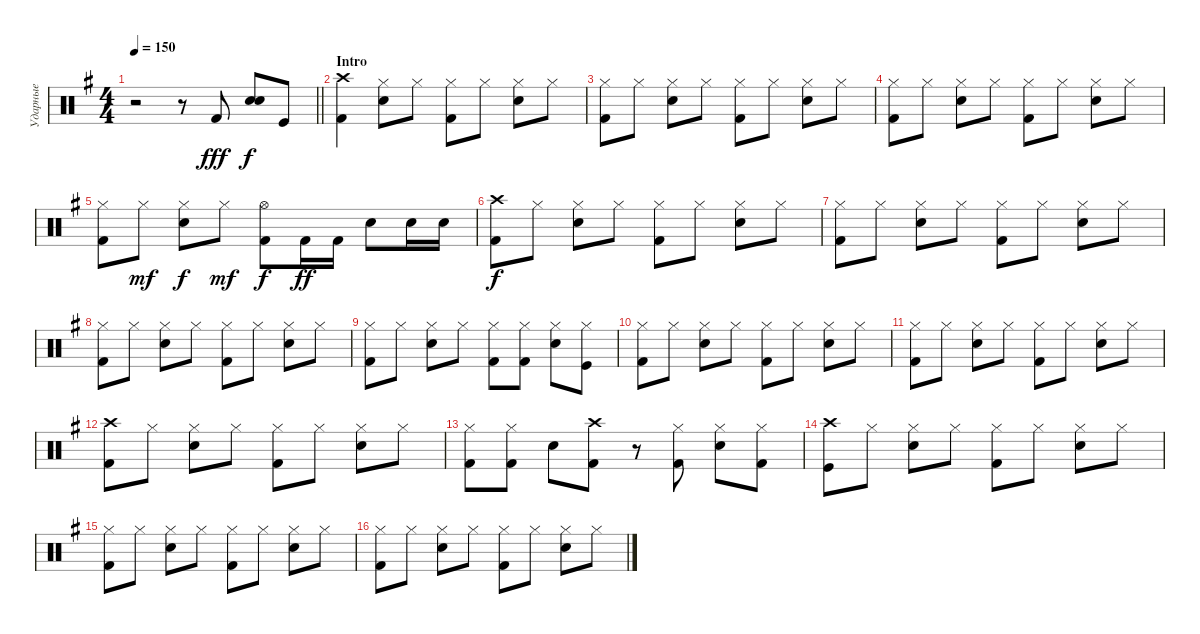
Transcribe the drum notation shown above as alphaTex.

\track ("Ударные" "Ударные") {instrument percussion}
\staff {score}
\articulation defaults
\ts (4 4)
\tempo 150
\clef neutral
\barLineRight lightlight
\ks eminor
r.2{dy fff} r.8 "Kick (hit) 2".8 ("Snare (hit) 2" "Snare (hit) 2").8{bd 240 dy f} "Kick (hit)".8 |
\section ("" "Intro")
("Crash high (hit)" "Kick (hit) 2").4 ("Hi-Hat (closed)" "Snare (hit) 2").8 "Hi-Hat (closed)".8 ("Kick (hit) 2" "Hi-Hat (closed)").8 "Hi-Hat (closed)".8 ("Hi-Hat (closed)" "Snare (hit) 2").8 "Hi-Hat (closed)".8 |
("Hi-Hat (closed)" "Kick (hit) 2").8 "Hi-Hat (closed)".8 ("Hi-Hat (closed)" "Snare (hit) 2").8 "Hi-Hat (closed)".8 ("Hi-Hat (closed)" "Kick (hit) 2").8 "Hi-Hat (closed)".8 ("Hi-Hat (closed)" "Snare (hit) 2").8 "Hi-Hat (closed)".8 |
("Hi-Hat (closed)" "Kick (hit) 2").8 "Hi-Hat (closed)".8 ("Hi-Hat (closed)" "Snare (hit) 2").8 "Hi-Hat (closed)".8 ("Hi-Hat (closed)" "Kick (hit) 2").8 "Hi-Hat (closed)".8 ("Hi-Hat (closed)" "Snare (hit) 2").8 "Hi-Hat (closed)".8 |
("Kick (hit) 2" "Hi-Hat (closed)").8 "Hi-Hat (closed)".8{dy mf} ("Snare (hit) 2" "Hi-Hat (closed)").8{dy f} "Hi-Hat (closed)".8{dy mf} ("Kick (hit) 2" "Hi-Hat (open)").8{dy f} "Kick (hit) 2".16{dy ff} "Kick (hit) 2".16 "Snare (hit) 2".8 "Snare (hit) 2".16 "Snare (hit) 2".16 |
("Crash high (hit)" "Kick (hit) 2").8{dy f} "Hi-Hat (closed)".8 ("Hi-Hat (closed)" "Snare (hit) 2").8 "Hi-Hat (closed)".8 ("Hi-Hat (closed)" "Kick (hit) 2").8 "Hi-Hat (closed)".8 ("Hi-Hat (closed)" "Snare (hit) 2").8 "Hi-Hat (closed)".8 |
("Hi-Hat (closed)" "Kick (hit) 2").8 "Hi-Hat (closed)".8 ("Hi-Hat (closed)" "Snare (hit) 2").8 "Hi-Hat (closed)".8 ("Hi-Hat (closed)" "Kick (hit) 2").8 "Hi-Hat (closed)".8 ("Hi-Hat (closed)" "Snare (hit) 2").8 "Hi-Hat (closed)".8 |
("Hi-Hat (closed)" "Kick (hit) 2").8 "Hi-Hat (closed)".8 ("Hi-Hat (closed)" "Snare (hit) 2").8 "Hi-Hat (closed)".8 ("Hi-Hat (closed)" "Kick (hit) 2").8 "Hi-Hat (closed)".8 ("Hi-Hat (closed)" "Snare (hit) 2").8 "Hi-Hat (closed)".8 |
("Hi-Hat (closed)" "Kick (hit) 2").8 "Hi-Hat (closed)".8 ("Hi-Hat (closed)" "Snare (hit) 2").8 "Hi-Hat (closed)".8 ("Hi-Hat (closed)" "Kick (hit) 2").8 ("Kick (hit) 2" "Hi-Hat (closed)").8 ("Hi-Hat (closed)" "Snare (hit) 2").8 ("Hi-Hat (closed)" "Kick (hit)").8 |
("Hi-Hat (closed)" "Kick (hit) 2").8 "Hi-Hat (closed)".8 ("Hi-Hat (closed)" "Snare (hit) 2").8 "Hi-Hat (closed)".8 ("Hi-Hat (closed)" "Kick (hit) 2").8 "Hi-Hat (closed)".8 ("Hi-Hat (closed)" "Snare (hit) 2").8 "Hi-Hat (closed)".8 |
("Hi-Hat (closed)" "Kick (hit) 2").8 "Hi-Hat (closed)".8 ("Hi-Hat (closed)" "Snare (hit) 2").8 "Hi-Hat (closed)".8 ("Hi-Hat (closed)" "Kick (hit) 2").8 "Hi-Hat (closed)".8 ("Hi-Hat (closed)" "Snare (hit) 2").8 "Hi-Hat (closed)".8 |
("Crash high (hit)" "Kick (hit) 2").8 "Hi-Hat (closed)".8 ("Hi-Hat (closed)" "Snare (hit) 2").8 "Hi-Hat (closed)".8 ("Hi-Hat (closed)" "Kick (hit) 2").8 "Hi-Hat (closed)".8 ("Hi-Hat (closed)" "Snare (hit) 2").8 "Hi-Hat (closed)".8 |
("Hi-Hat (closed)" "Kick (hit) 2").8 ("Kick (hit) 2" "Hi-Hat (closed)").8 "Snare (hit) 2".8 ("Kick (hit) 2" "Crash high (hit)").8 r.8 ("Kick (hit) 2" "Hi-Hat (closed)").8 ("Hi-Hat (closed)" "Snare (hit) 2").8 ("Kick (hit) 2" "Hi-Hat (closed)").8 |
("Crash high (hit)" "Kick (hit)").8 "Hi-Hat (closed)".8 ("Hi-Hat (closed)" "Snare (hit) 2").8 "Hi-Hat (closed)".8 ("Hi-Hat (closed)" "Kick (hit) 2").8 "Hi-Hat (closed)".8 ("Hi-Hat (closed)" "Snare (hit) 2").8 "Hi-Hat (closed)".8 |
("Hi-Hat (closed)" "Kick (hit) 2").8 "Hi-Hat (closed)".8 ("Hi-Hat (closed)" "Snare (hit) 2").8 "Hi-Hat (closed)".8 ("Hi-Hat (closed)" "Kick (hit) 2").8 "Hi-Hat (closed)".8 ("Hi-Hat (closed)" "Snare (hit) 2").8 "Hi-Hat (closed)".8 |
("Hi-Hat (closed)" "Kick (hit) 2").8 "Hi-Hat (closed)".8 ("Hi-Hat (closed)" "Snare (hit) 2").8 "Hi-Hat (closed)".8 ("Hi-Hat (closed)" "Kick (hit) 2").8 "Hi-Hat (closed)".8 ("Hi-Hat (closed)" "Snare (hit) 2").8 "Hi-Hat (closed)".8
